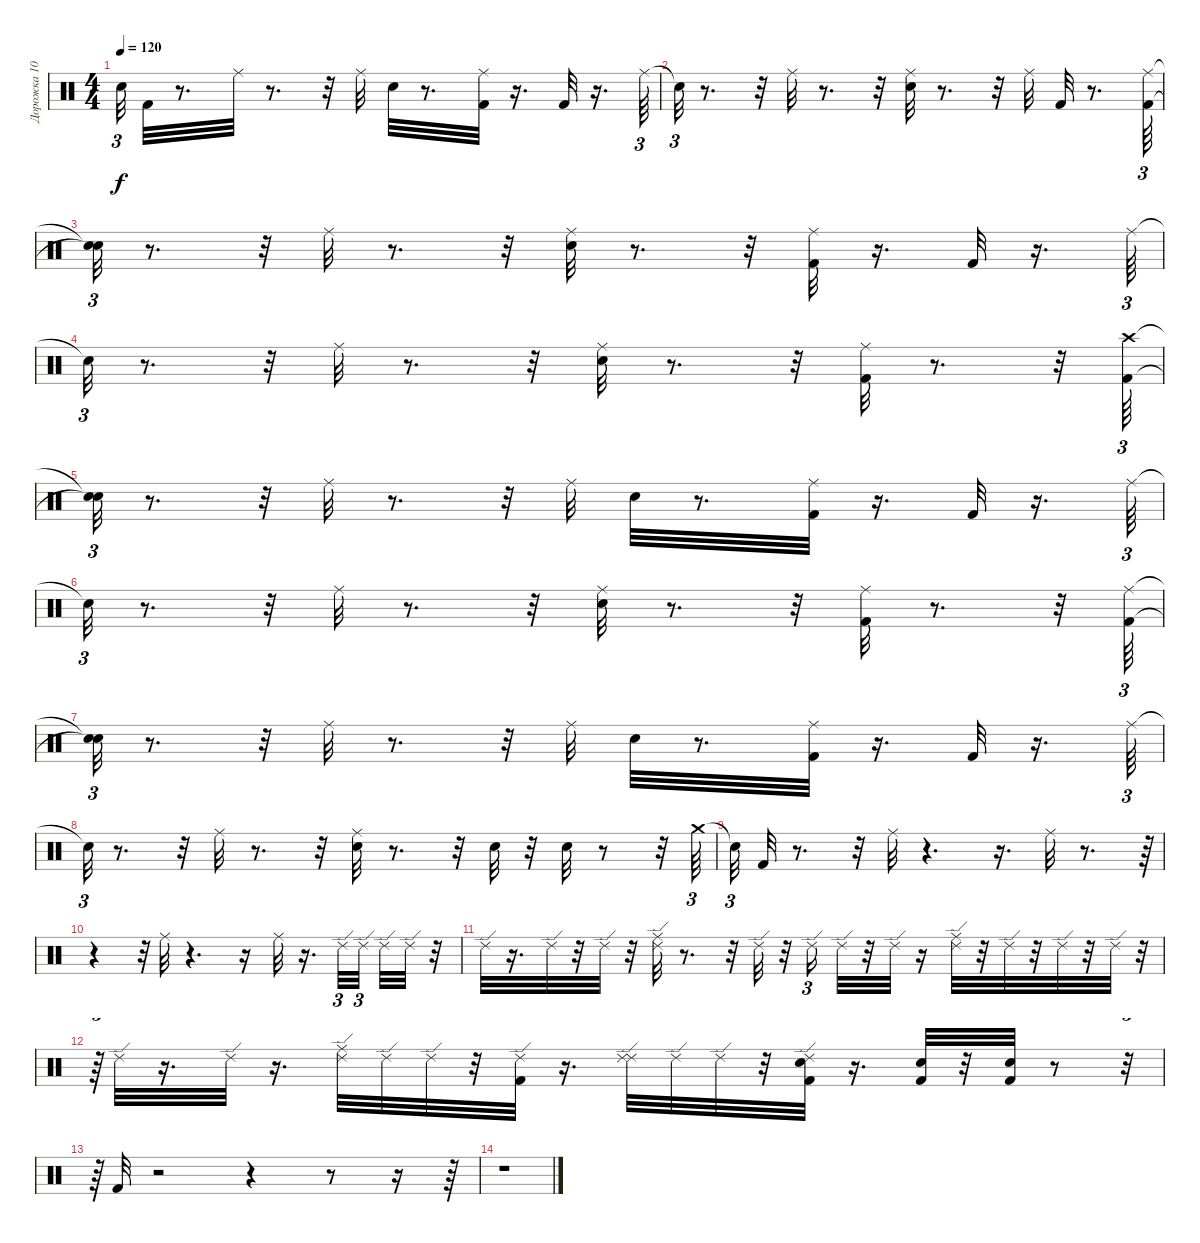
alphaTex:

\track ("Дорожка 10" "Дорожка 10") {instrument percussion}
\staff {score}
\articulation defaults
\ts (4 4)
\tempo 120
\clef neutral
\ks c "Snare (hit)"{t}.32{tu (3 2) dy f} "Kick (hit) 2".32
r.8{d} "Ride (middle)".32 r.8{d} r.32 "Ride (middle)".32 "Snare (hit) 2".32 r.8{d} ("Ride (middle)" "Kick (hit) 2").32 r.16{d} "Kick (hit) 2".32 r.16{d} "Ride (middle)".64{tu (3 2)} |
"Snare (hit)"{t}.32{tu (3 2)} r.8{d} r.32 "Ride (middle)".32 r.8{d} r.32 ("Snare (hit) 2" "Ride (middle)").32 r.8{d} r.32 "Ride (middle)".32 "Kick (hit) 2".32 r.8{d} ("Ride (middle)" "Kick (hit) 2").64{tu (3 2)} |
("Snare (hit)"{t} "Snare (hit)"{t}).32{tu (3 2)} r.8{d} r.32 "Ride (middle)".32 r.8{d} r.32 ("Snare (hit) 2" "Ride (middle)").32 r.8{d} r.32 ("Kick (hit) 2" "Ride (middle)").32 r.16{d} "Kick (hit) 2".32 r.16{d} "Ride (middle)".64{tu (3 2)} |
"Snare (hit)"{t}.32{tu (3 2)} r.8{d} r.32 "Ride (middle)".32 r.8{d} r.32 ("Snare (hit) 2" "Ride (middle)").32 r.8{d} r.32 ("Ride (middle)" "Kick (hit) 2").32 r.8{d} r.32 ("Crash high (hit)" "Kick (hit) 2").64{tu (3 2)} |
("Snare (hit)"{t} "Snare (hit)"{t}).32{tu (3 2)} r.8{d} r.32 "Ride (middle)".32 r.8{d} r.32 "Ride (middle)".32 "Snare (hit) 2".32 r.8{d} ("Ride (middle)" "Kick (hit) 2").32 r.16{d} "Kick (hit) 2".32 r.16{d} "Ride (middle)".64{tu (3 2)} |
"Snare (hit)"{t}.32{tu (3 2)} r.8{d} r.32 "Ride (middle)".32 r.8{d} r.32 ("Ride (middle)" "Snare (hit) 2").32 r.8{d} r.32 ("Ride (middle)" "Kick (hit) 2").32 r.8{d} r.32 ("Ride (middle)" "Kick (hit) 2").64{tu (3 2)} |
("Snare (hit)"{t} "Snare (hit)"{t}).32{tu (3 2)} r.8{d} r.32 "Ride (middle)".32 r.8{d} r.32 "Ride (middle)".32 "Snare (hit) 2".32 r.8{d} ("Ride (middle)" "Kick (hit) 2").32 r.16{d} "Kick (hit) 2".32 r.16{d} "Ride (middle)".64{tu (3 2)} |
"Snare (hit)"{t}.32{tu (3 2)} r.8{d} r.32 "Ride (middle)".32 r.8{d} r.32 ("Ride (middle)" "Snare (hit) 2").32 r.8{d} r.32 "Snare (hit) 2".32 r.32 "Snare (hit) 2".32 r.8 r.32 "Crash medium (hit)".64{tu (3 2)} |
"Snare (hit)"{t}.32{tu (3 2)} "Kick (hit) 2".32 r.8{d} r.32 "Ride (middle)".32 r.4{d} r.16{d} "Ride (middle)".32 r.8{d} r.64{tu (3 2)} |
r.4 r.32{tu (3 2)} "Ride (middle)".32 r.4{d} r.16 "Ride (middle)".32 r.16{d} "Ride (edge) 2".32{tu (3 2)} "Ride (edge) 2".32{tu (3 2)} "Ride (edge) 2".32 "Ride (edge) 2".32 r.32 |
"Ride (edge) 2".32 r.16{d} "Ride (edge) 2".32 r.32 "Ride (edge) 2".32 r.32 ("Ride (middle)" "Ride (edge) 2").32 r.8{d} r.32 "Ride (edge) 2".32 r.32 "Ride (edge) 2".16{tu (3 2)} "Ride (edge) 2".32 r.32 "Ride (edge) 2".32 r.16 ("Ride (middle)" "Ride (edge) 2").32 r.32 "Ride (edge) 2".32 r.32 "Ride (edge) 2".32 r.32 "Ride (edge) 2".32 r.32{tu (3 2)} |
r.64{tu (3 2)} "Ride (edge) 2".32 r.16{d} "Ride (edge) 2".32 r.16{d} ("Ride (middle)" "Ride (edge) 2").32 "Ride (edge) 2".32 "Ride (edge) 2".32 r.32 ("Kick (hit) 2" "Ride (edge) 2").32 r.16{d} ("Ride (edge) 2" "Ride (edge) 2").32 "Ride (edge) 2".32 "Ride (edge) 2".32 r.32 ("Snare (hit) 2" "Ride (edge) 2" "Kick (hit) 2").32 r.16{d} ("Kick (hit) 2" "Snare (hit) 2").32 r.32 ("Kick (hit) 2" "Snare (hit) 2").32 r.8 r.32{tu (3 2)} |
r.64{tu (3 2)} "Kick (hit) 2".32 r.2 r.4 r.8 r.16 r.64 |
r.1
